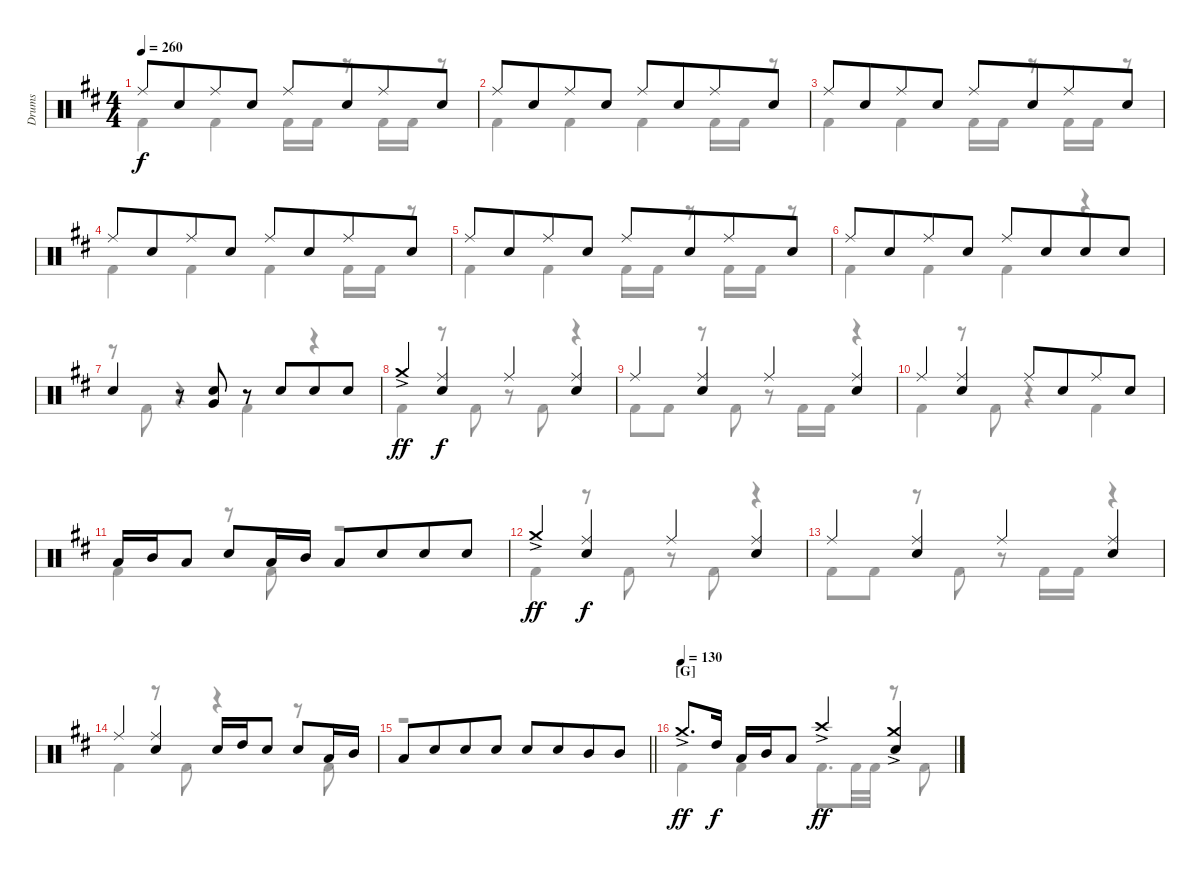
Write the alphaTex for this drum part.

\track ("Drums" "Drums") {instrument percussion}
\staff {score}
\articulation defaults
\voice
\ts (4 4)
\tempo 260
\clef neutral
\ks bminor "Ride (middle)".8{dy f} "Snare (hit) 2".8{beam merge} "Ride (middle)".8 "Snare (hit) 2".8 "Ride (middle)".8 "Snare (hit) 2".8{beam merge} "Ride (middle)".8 "Snare (hit) 2".8
|
"Ride (middle)".8 "Snare (hit) 2".8{beam merge} "Ride (middle)".8 "Snare (hit) 2".8 "Ride (middle)".8 "Snare (hit) 2".8{beam merge} "Ride (middle)".8 "Snare (hit) 2".8 |
"Ride (middle)".8 "Snare (hit) 2".8{beam merge} "Ride (middle)".8 "Snare (hit) 2".8 "Ride (middle)".8 "Snare (hit) 2".8{beam merge} "Ride (middle)".8 "Snare (hit) 2".8 |
"Ride (middle)".8 "Snare (hit) 2".8{beam merge} "Ride (middle)".8 "Snare (hit) 2".8 "Ride (middle)".8 "Snare (hit) 2".8{beam merge} "Ride (middle)".8 "Snare (hit) 2".8 |
"Ride (middle)".8 "Snare (hit) 2".8{beam merge} "Ride (middle)".8 "Snare (hit) 2".8 "Ride (middle)".8 "Snare (hit) 2".8{beam merge} "Ride (middle)".8 "Snare (hit) 2".8 |
"Ride (middle)".8 "Snare (hit) 2".8{beam merge} "Ride (middle)".8 "Snare (hit) 2".8 "Ride (middle)".8 "Snare (hit) 2".8{beam merge} "Snare (hit) 2".8 "Snare (hit) 2".8 |
"Snare (hit) 2".4 r.8 ("Snare (hit) 2" "Very Low Tom (hit)").8 r.8 "Snare (hit) 2".8{beam merge} "Snare (hit) 2".8 "Snare (hit) 2".8 |
"Crash medium (hit)"{ac}.4{dy ff} ("Ride (middle)" "Snare (hit) 2").4{dy f} "Ride (middle)".4 ("Ride (middle)" "Snare (hit) 2").4 |
"Ride (middle)".4 ("Ride (middle)" "Snare (hit) 2").4 "Ride (middle)".4 ("Ride (middle)" "Snare (hit) 2").4 |
"Ride (middle)".4 ("Ride (middle)" "Snare (hit) 2").4 "Ride (middle)".8 "Snare (hit) 2".8{beam merge} "Ride (middle)".8 "Snare (hit) 2".8 |
"Low Tom (hit)".16 "Mid Tom (hit)".16 "Low Tom (hit)".8 "Snare (hit) 2".8 "Low Tom (hit)".16 "Mid Tom (hit)".16 "Low Tom (hit)".8 "Snare (hit) 2".8{beam merge} "Snare (hit) 2".8 "Snare (hit) 2".8 |
"Crash medium (hit)"{ac}.4{dy ff} ("Ride (middle)" "Snare (hit) 2").4{dy f} "Ride (middle)".4 ("Ride (middle)" "Snare (hit) 2").4 |
"Ride (middle)".4 ("Ride (middle)" "Snare (hit) 2").4 "Ride (middle)".4 ("Ride (middle)" "Snare (hit) 2").4 |
"Ride (middle)".4 ("Ride (middle)" "Snare (hit) 2").4 "Snare (hit) 2".16 "High Tom (hit)".16 "Snare (hit) 2".8 "Snare (hit) 2".8 "Low Tom (hit)".16 "Mid Tom (hit)".16 |
\barLineRight lightlight "Low Tom (hit)".8 "Snare (hit) 2".8{beam merge} "Snare (hit) 2".8 "Snare (hit) 2".8 "Snare (hit) 2".8 "Snare (hit) 2".8{beam merge} "Mid Tom (hit)".8 "Mid Tom (hit)".8
|
\section ("" "[G]")
\tempo (130)
"Crash medium (hit)"{ac}.8{d dy ff} "High Tom (hit)".16{dy f} "Low Tom (hit)".16 "Mid Tom (hit)".16 "Low Tom (hit)".8 "Crash high (hit)"{ac}.4{dy ff} ("Crash medium (hit)"{ac} "Snare (hit) 2").4
\voice
\clef neutral
\ottava regular
\simile none
\ks bminor "Kick (hit) 2".4{dy f} "Kick (hit) 2".4 "Kick (hit) 2".16 "Kick (hit) 2".16
r.8 "Kick (hit) 2".16 "Kick (hit) 2".16 r.8 |
"Kick (hit) 2".4 "Kick (hit) 2".4 "Kick (hit) 2".4 "Kick (hit) 2".16 "Kick (hit) 2".16 r.8 |
"Kick (hit) 2".4 "Kick (hit) 2".4 "Kick (hit) 2".16 "Kick (hit) 2".16 r.8 "Kick (hit) 2".16 "Kick (hit) 2".16 r.8 |
"Kick (hit) 2".4 "Kick (hit) 2".4 "Kick (hit) 2".4 "Kick (hit) 2".16 "Kick (hit) 2".16 r.8 |
"Kick (hit) 2".4 "Kick (hit) 2".4 "Kick (hit) 2".16 "Kick (hit) 2".16 r.8 "Kick (hit) 2".16 "Kick (hit) 2".16 r.8 |
"Kick (hit) 2".4 "Kick (hit) 2".4 "Kick (hit) 2".4 r.4 |
r.8 "Kick (hit) 2".8 r.4 "Kick (hit) 2".4 r.4 |
"Kick (hit) 2".4 r.8 "Kick (hit) 2".8 r.8 "Kick (hit) 2".8 r.4 |
"Kick (hit) 2".8 "Kick (hit) 2".8 r.8 "Kick (hit) 2".8 r.8 "Kick (hit) 2".16 "Kick (hit) 2".16 r.4 |
"Kick (hit) 2".4 r.8 "Kick (hit) 2".8 r.4 "Kick (hit) 2".4 |
"Kick (hit) 2".4 r.8 "Kick (hit) 2".8 r.2 |
"Kick (hit) 2".4 r.8 "Kick (hit) 2".8 r.8 "Kick (hit) 2".8 r.4 |
"Kick (hit) 2".8 "Kick (hit) 2".8 r.8 "Kick (hit) 2".8 r.8 "Kick (hit) 2".16 "Kick (hit) 2".16 r.4 |
"Kick (hit) 2".4 r.8 "Kick (hit) 2".8 r.4 r.8 "Kick (hit) 2".8 |
\barLineRight lightlight
r.1 |
"Kick (hit) 2".4 "Kick (hit) 2".4 "Kick (hit) 2".8{d} "Kick (hit) 2".32 "Kick (hit) 2".32 r.8 "Kick (hit) 2".8
